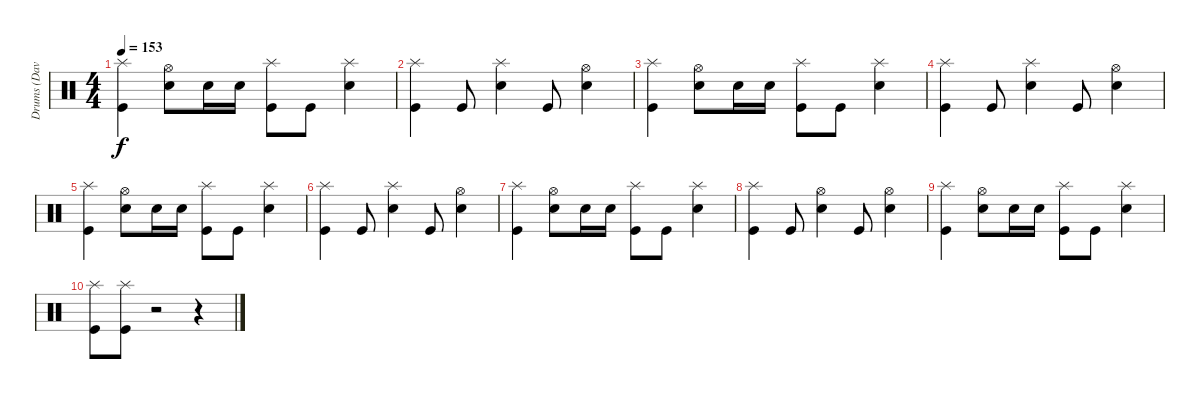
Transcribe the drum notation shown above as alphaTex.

\track ("Drums (Dave)" "Drums (Dav") {instrument percussion}
\staff {score}
\articulation defaults
\ts (4 4)
\tempo 153
\clef neutral
\ks c
("Splash (hit)" "Kick (hit)").4{dy f} ("Hi-Hat (open)" "Snare (hit) 2").8 "Snare (hit) 2".16 "Snare (hit) 2".16 ("Splash (hit)" "Kick (hit)").8 "Kick (hit)".8 ("Splash (hit)" "Snare (hit) 2").4 |
("Splash (hit)" "Kick (hit)").4 "Kick (hit)".8 ("Splash (hit)" "Snare (hit) 2").4 "Kick (hit)".8 ("Hi-Hat (open)" "Snare (hit) 2").4 |
("Splash (hit)" "Kick (hit)").4 ("Hi-Hat (open)" "Snare (hit) 2").8 "Snare (hit) 2".16 "Snare (hit) 2".16 ("Splash (hit)" "Kick (hit)").8 "Kick (hit)".8 ("Splash (hit)" "Snare (hit) 2").4 |
("Splash (hit)" "Kick (hit)").4 "Kick (hit)".8 ("Splash (hit)" "Snare (hit) 2").4 "Kick (hit)".8 ("Hi-Hat (open)" "Snare (hit) 2").4 |
("Splash (hit)" "Kick (hit)").4 ("Hi-Hat (open)" "Snare (hit) 2").8 "Snare (hit) 2".16 "Snare (hit) 2".16 ("Splash (hit)" "Kick (hit)").8 "Kick (hit)".8 ("Splash (hit)" "Snare (hit) 2").4 |
("Splash (hit)" "Kick (hit)").4 "Kick (hit)".8 ("Splash (hit)" "Snare (hit) 2").4 "Kick (hit)".8 ("Hi-Hat (open)" "Snare (hit) 2").4 |
("Splash (hit)" "Kick (hit)").4 ("Hi-Hat (open)" "Snare (hit) 2").8 "Snare (hit) 2".16 "Snare (hit) 2".16 ("Splash (hit)" "Kick (hit)").8 "Kick (hit)".8 ("Splash (hit)" "Snare (hit) 2").4 |
("Splash (hit)" "Kick (hit)").4 "Kick (hit)".8 ("Hi-Hat (open)" "Snare (hit) 2").4 "Kick (hit)".8 ("Hi-Hat (open)" "Snare (hit) 2").4 |
("Splash (hit)" "Kick (hit)").4 ("Hi-Hat (open)" "Snare (hit) 2").8 "Snare (hit) 2".16 "Snare (hit) 2".16 ("Splash (hit)" "Kick (hit)").8 "Kick (hit)".8 ("Splash (hit)" "Snare (hit) 2").4 |
("Splash (hit)" "Kick (hit)").8 ("Splash (hit)" "Kick (hit)").8 r.2 r.4
